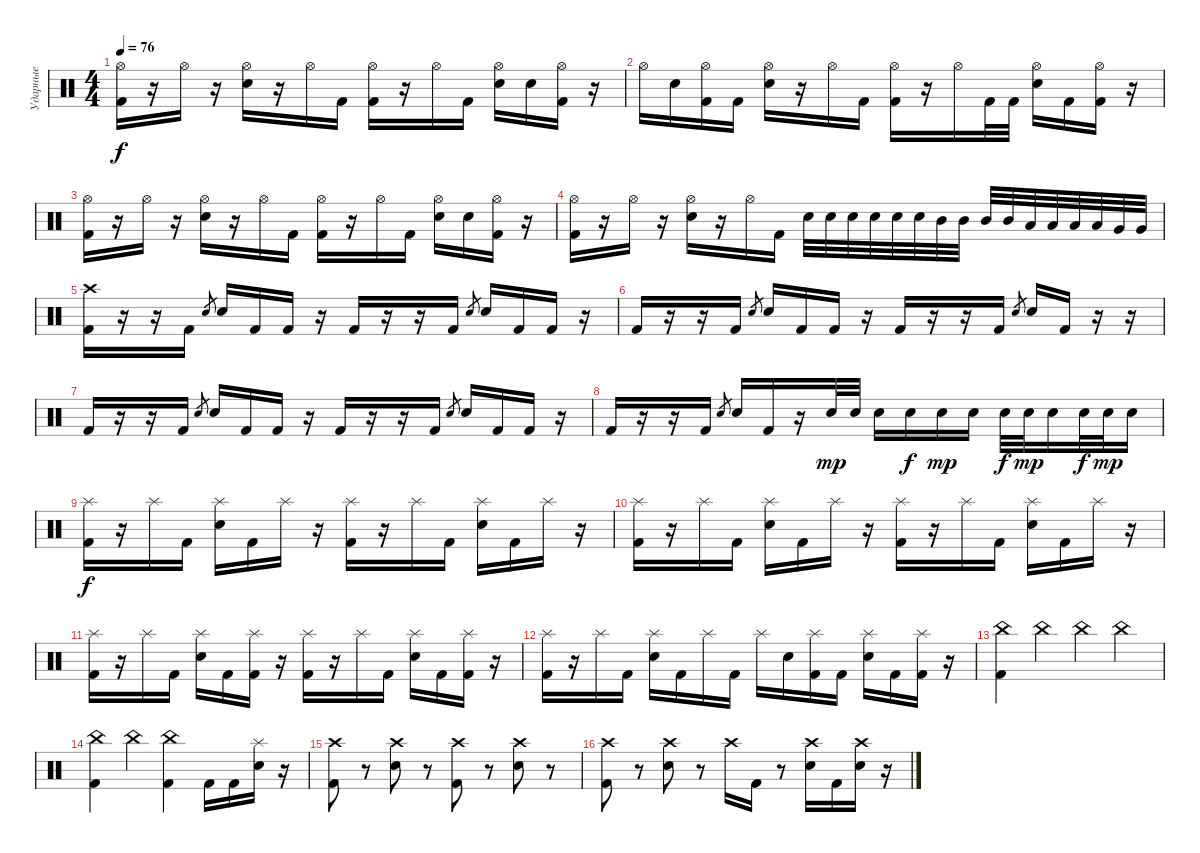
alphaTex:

\track ("Ударные" "Ударные") {instrument percussion}
\staff {score}
\articulation defaults
\ts (4 4)
\tempo 76
\clef neutral
\ks c
("Hi-Hat (open)" "Kick (hit) 2").16{dy f} r.16 "Hi-Hat (open)".16 r.16 ("Hi-Hat (open)" "Electric Snare (hit)").16 r.16 "Hi-Hat (open)".16 "Kick (hit) 2".16 ("Hi-Hat (open)" "Kick (hit) 2").16 r.16 "Hi-Hat (open)".16 "Kick (hit) 2".16 ("Hi-Hat (open)" "Electric Snare (hit)").16 "Electric Snare (hit)".16 ("Hi-Hat (open)" "Kick (hit) 2").16 r.16 |
"Hi-Hat (open)".16 "Electric Snare (hit)".16 ("Hi-Hat (open)" "Kick (hit) 2").16 "Kick (hit) 2".16 ("Hi-Hat (open)" "Electric Snare (hit)").16 r.16 "Hi-Hat (open)".16 "Kick (hit) 2".16 ("Hi-Hat (open)" "Kick (hit) 2").16 r.16 "Hi-Hat (open)".16 "Kick (hit) 2".32 "Kick (hit) 2".32 ("Hi-Hat (open)" "Electric Snare (hit)").16 "Kick (hit) 2".16 ("Hi-Hat (open)" "Kick (hit) 2").16 r.16 |
("Hi-Hat (open)" "Kick (hit) 2").16 r.16 "Hi-Hat (open)".16 r.16 ("Hi-Hat (open)" "Electric Snare (hit)").16 r.16 "Hi-Hat (open)".16 "Kick (hit) 2".16 ("Hi-Hat (open)" "Kick (hit) 2").16 r.16 "Hi-Hat (open)".16 "Kick (hit) 2".16 ("Hi-Hat (open)" "Electric Snare (hit)").16 "Electric Snare (hit)".16 ("Hi-Hat (open)" "Kick (hit) 2").16 r.16 |
("Hi-Hat (open)" "Kick (hit) 2").16 r.16 "Hi-Hat (open)".16 r.16 ("Hi-Hat (open)" "Electric Snare (hit)").16 r.16 "Hi-Hat (open)".16 "Kick (hit) 2".16 "Electric Snare (hit)".32 "Electric Snare (hit)".32 "Electric Snare (hit)".32 "Electric Snare (hit)".32 "Electric Snare (hit)".32 "Electric Snare (hit)".32 "Mid Tom (hit)".32 "Mid Tom (hit)".32 "Mid Tom (hit)".32 "Mid Tom (hit)".32 "Low Tom (hit)".32 "Low Tom (hit)".32 "Low Tom (hit)".32 "Low Tom (hit)".32 "Very Low Tom (hit)".32 "Very Low Tom (hit)".32 |
("Crash high (hit)" "Kick (hit) 2").16 r.16 r.16 "Kick (hit) 2".16 "Electric Snare (hit)"{h}.8{gr} "Electric Snare (hit)".16 "Kick (hit) 2".16 "Kick (hit) 2".16 r.16 "Kick (hit) 2".16 r.16 r.16 "Kick (hit) 2".16 "Electric Snare (hit)"{h}.8{gr} "Electric Snare (hit)".16 "Kick (hit) 2".16 "Kick (hit) 2".16 r.16 |
"Kick (hit) 2".16 r.16 r.16 "Kick (hit) 2".16 "Electric Snare (hit)"{h}.8{gr} "Electric Snare (hit)".16 "Kick (hit) 2".16 "Kick (hit) 2".16 r.16 "Kick (hit) 2".16 r.16 r.16 "Kick (hit) 2".16 "Electric Snare (hit)"{h}.8{gr} "Electric Snare (hit)".16 "Kick (hit) 2".16 r.16 r.16 |
"Kick (hit) 2".16 r.16 r.16 "Kick (hit) 2".16 "Electric Snare (hit)"{h}.8{gr} "Electric Snare (hit)".16 "Kick (hit) 2".16 "Kick (hit) 2".16 r.16 "Kick (hit) 2".16 r.16 r.16 "Kick (hit) 2".16 "Electric Snare (hit)"{h}.8{gr} "Electric Snare (hit)".16 "Kick (hit) 2".16 "Kick (hit) 2".16 r.16 |
"Kick (hit) 2".16 r.16 r.16 "Kick (hit) 2".16 "Electric Snare (hit)"{h}.8{gr} "Electric Snare (hit)".16 "Kick (hit) 2".16 r.16 "Electric Snare (hit)".32{dy mp} "Electric Snare (hit)".32 "Electric Snare (hit)".16 "Electric Snare (hit)".16{dy f} "Electric Snare (hit)".16{dy mp} "Electric Snare (hit)".16 "Electric Snare (hit)".32{dy f} "Electric Snare (hit)".32{dy mp} "Electric Snare (hit)".16 "Electric Snare (hit)".32{dy f} "Electric Snare (hit)".32{dy mp} "Electric Snare (hit)".16 |
("Splash (hit)" "Kick (hit) 2").16{dy f} r.16 "Splash (hit)".16 "Kick (hit) 2".16 ("Splash (hit)" "Electric Snare (hit)").16 "Kick (hit) 2".16 "Splash (hit)".16 r.16 ("Splash (hit)" "Kick (hit) 2").16 r.16 "Splash (hit)".16 "Kick (hit) 2".16 ("Splash (hit)" "Electric Snare (hit)").16 "Kick (hit) 2".16 "Splash (hit)".16 r.16 |
("Splash (hit)" "Kick (hit) 2").16 r.16 "Splash (hit)".16 "Kick (hit) 2".16 ("Splash (hit)" "Electric Snare (hit)").16 "Kick (hit) 2".16 "Splash (hit)".16 r.16 ("Splash (hit)" "Kick (hit) 2").16 r.16 "Splash (hit)".16 "Kick (hit) 2".16 ("Splash (hit)" "Electric Snare (hit)").16 "Kick (hit) 2".16 "Splash (hit)".16 r.16 |
("Splash (hit)" "Kick (hit) 2").16 r.16 "Splash (hit)".16 "Kick (hit) 2".16 ("Splash (hit)" "Electric Snare (hit)").16 "Kick (hit) 2".16 ("Splash (hit)" "Kick (hit) 2").16 r.16 ("Splash (hit)" "Kick (hit) 2").16 r.16 "Splash (hit)".16 "Kick (hit) 2".16 ("Splash (hit)" "Electric Snare (hit)").16 "Kick (hit) 2".16 ("Splash (hit)" "Kick (hit) 2").16 r.16 |
("Splash (hit)" "Kick (hit) 2").16 r.16 "Splash (hit)".16 "Kick (hit) 2".16 ("Splash (hit)" "Electric Snare (hit)").16 "Kick (hit) 2".16 "Splash (hit)".16 "Kick (hit) 2".16 "Splash (hit)".16 "Electric Snare (hit)".16 ("Splash (hit)" "Kick (hit) 2").16 "Kick (hit) 2".16 ("Splash (hit)" "Electric Snare (hit)").16 "Kick (hit) 2".16 ("Splash (hit)" "Kick (hit) 2").16 r.16 |
("China (hit)" "Kick (hit) 2").4 "China (hit)".4 "China (hit)".4 "China (hit)".4 |
("China (hit)" "Kick (hit) 2").4 "China (hit)".4 ("China (hit)" "Kick (hit) 2").4 "Kick (hit) 2".16 "Kick (hit) 2".16 ("Splash (hit)" "Electric Snare (hit)").16 r.16 |
("Crash high (hit)" "Kick (hit) 2").8 r.8 ("Crash high (hit)" "Electric Snare (hit)").8 r.8 ("Crash high (hit)" "Kick (hit) 2").8 r.8 ("Crash high (hit)" "Electric Snare (hit)").8 r.8 |
("Crash high (hit)" "Kick (hit) 2").8 r.8 ("Crash high (hit)" "Electric Snare (hit)").8 r.8 "Crash high (hit)".16 "Kick (hit) 2".16 r.8 ("Crash high (hit)" "Electric Snare (hit)").16 "Kick (hit) 2".16 ("Crash high (hit)" "Electric Snare (hit)").16 r.16
